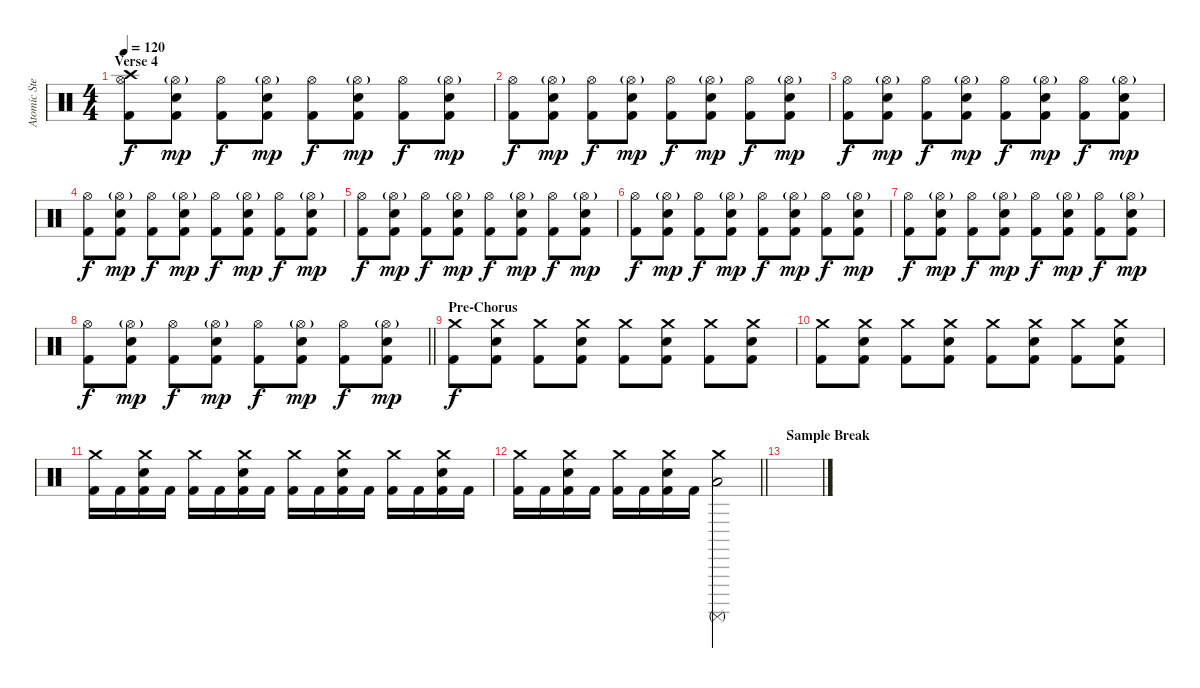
\track ("Atomic Steif" "Atomic Ste") {instrument percussion}
\staff {score}
\articulation defaults
\ts (4 4)
\section ("" "Verse 4")
\tempo 120
\clef neutral
\ks c
("Crash high (hit)" "Hi-Hat (open)" "Kick (hit) 2").8{dy f} ("Hi-Hat (open)"{g} "Electric Snare (hit)" "Kick (hit) 2").8{dy mp} ("Hi-Hat (open)" "Kick (hit) 2").8{dy f} ("Hi-Hat (open)"{g} "Electric Snare (hit)" "Kick (hit) 2").8{dy mp} ("Hi-Hat (open)" "Kick (hit) 2").8{dy f} ("Hi-Hat (open)"{g} "Electric Snare (hit)" "Kick (hit) 2").8{dy mp} ("Hi-Hat (open)" "Kick (hit) 2").8{dy f} ("Hi-Hat (open)"{g} "Electric Snare (hit)" "Kick (hit) 2").8{dy mp} |
("Hi-Hat (open)" "Kick (hit) 2").8{dy f} ("Hi-Hat (open)"{g} "Electric Snare (hit)" "Kick (hit) 2").8{dy mp} ("Hi-Hat (open)" "Kick (hit) 2").8{dy f} ("Hi-Hat (open)"{g} "Electric Snare (hit)" "Kick (hit) 2").8{dy mp} ("Hi-Hat (open)" "Kick (hit) 2").8{dy f} ("Hi-Hat (open)"{g} "Electric Snare (hit)" "Kick (hit) 2").8{dy mp} ("Hi-Hat (open)" "Kick (hit) 2").8{dy f} ("Hi-Hat (open)"{g} "Electric Snare (hit)" "Kick (hit) 2").8{dy mp} |
("Hi-Hat (open)" "Kick (hit) 2").8{dy f} ("Hi-Hat (open)"{g} "Electric Snare (hit)" "Kick (hit) 2").8{dy mp} ("Hi-Hat (open)" "Kick (hit) 2").8{dy f} ("Hi-Hat (open)"{g} "Electric Snare (hit)" "Kick (hit) 2").8{dy mp} ("Hi-Hat (open)" "Kick (hit) 2").8{dy f} ("Hi-Hat (open)"{g} "Electric Snare (hit)" "Kick (hit) 2").8{dy mp} ("Hi-Hat (open)" "Kick (hit) 2").8{dy f} ("Hi-Hat (open)"{g} "Electric Snare (hit)" "Kick (hit) 2").8{dy mp} |
("Hi-Hat (open)" "Kick (hit) 2").8{dy f} ("Hi-Hat (open)"{g} "Electric Snare (hit)" "Kick (hit) 2").8{dy mp} ("Hi-Hat (open)" "Kick (hit) 2").8{dy f} ("Hi-Hat (open)"{g} "Electric Snare (hit)" "Kick (hit) 2").8{dy mp} ("Hi-Hat (open)" "Kick (hit) 2").8{dy f} ("Hi-Hat (open)"{g} "Electric Snare (hit)" "Kick (hit) 2").8{dy mp} ("Hi-Hat (open)" "Kick (hit) 2").8{dy f} ("Hi-Hat (open)"{g} "Electric Snare (hit)" "Kick (hit) 2").8{dy mp} |
("Hi-Hat (open)" "Kick (hit) 2").8{dy f} ("Hi-Hat (open)"{g} "Electric Snare (hit)" "Kick (hit) 2").8{dy mp} ("Hi-Hat (open)" "Kick (hit) 2").8{dy f} ("Hi-Hat (open)"{g} "Electric Snare (hit)" "Kick (hit) 2").8{dy mp} ("Hi-Hat (open)" "Kick (hit) 2").8{dy f} ("Hi-Hat (open)"{g} "Electric Snare (hit)" "Kick (hit) 2").8{dy mp} ("Hi-Hat (open)" "Kick (hit) 2").8{dy f} ("Hi-Hat (open)"{g} "Electric Snare (hit)" "Kick (hit) 2").8{dy mp} |
("Hi-Hat (open)" "Kick (hit) 2").8{dy f} ("Hi-Hat (open)"{g} "Electric Snare (hit)" "Kick (hit) 2").8{dy mp} ("Hi-Hat (open)" "Kick (hit) 2").8{dy f} ("Hi-Hat (open)"{g} "Electric Snare (hit)" "Kick (hit) 2").8{dy mp} ("Hi-Hat (open)" "Kick (hit) 2").8{dy f} ("Hi-Hat (open)"{g} "Electric Snare (hit)" "Kick (hit) 2").8{dy mp} ("Hi-Hat (open)" "Kick (hit) 2").8{dy f} ("Hi-Hat (open)"{g} "Electric Snare (hit)" "Kick (hit) 2").8{dy mp} |
("Hi-Hat (open)" "Kick (hit) 2").8{dy f} ("Hi-Hat (open)"{g} "Electric Snare (hit)" "Kick (hit) 2").8{dy mp} ("Hi-Hat (open)" "Kick (hit) 2").8{dy f} ("Hi-Hat (open)"{g} "Electric Snare (hit)" "Kick (hit) 2").8{dy mp} ("Hi-Hat (open)" "Kick (hit) 2").8{dy f} ("Hi-Hat (open)"{g} "Electric Snare (hit)" "Kick (hit) 2").8{dy mp} ("Hi-Hat (open)" "Kick (hit) 2").8{dy f} ("Hi-Hat (open)"{g} "Electric Snare (hit)" "Kick (hit) 2").8{dy mp} |
\barLineRight lightlight
("Hi-Hat (open)" "Kick (hit) 2").8{dy f} ("Hi-Hat (open)"{g} "Electric Snare (hit)" "Kick (hit) 2").8{dy mp} ("Hi-Hat (open)" "Kick (hit) 2").8{dy f} ("Hi-Hat (open)"{g} "Electric Snare (hit)" "Kick (hit) 2").8{dy mp} ("Hi-Hat (open)" "Kick (hit) 2").8{dy f} ("Hi-Hat (open)"{g} "Electric Snare (hit)" "Kick (hit) 2").8{dy mp} ("Hi-Hat (open)" "Kick (hit) 2").8{dy f} ("Hi-Hat (open)"{g} "Electric Snare (hit)" "Kick (hit) 2").8{dy mp} |
\section ("" "Pre-Chorus")
("Crash medium (hit)" "Kick (hit) 2").8{dy f} ("Crash medium (hit)" "Electric Snare (hit)" "Kick (hit) 2").8 ("Crash medium (hit)" "Kick (hit) 2").8 ("Crash medium (hit)" "Electric Snare (hit)" "Kick (hit) 2").8 ("Crash medium (hit)" "Kick (hit) 2").8 ("Crash medium (hit)" "Electric Snare (hit)" "Kick (hit) 2").8 ("Crash medium (hit)" "Kick (hit) 2").8 ("Crash medium (hit)" "Electric Snare (hit)" "Kick (hit) 2").8 |
("Crash medium (hit)" "Kick (hit) 2").8 ("Crash medium (hit)" "Electric Snare (hit)" "Kick (hit) 2").8 ("Crash medium (hit)" "Kick (hit) 2").8 ("Crash medium (hit)" "Electric Snare (hit)" "Kick (hit) 2").8 ("Crash medium (hit)" "Kick (hit) 2").8 ("Crash medium (hit)" "Electric Snare (hit)" "Kick (hit) 2").8 ("Crash medium (hit)" "Kick (hit) 2").8 ("Crash medium (hit)" "Electric Snare (hit)" "Kick (hit) 2").8 |
("Crash medium (hit)" "Kick (hit) 2").16 "Kick (hit) 2".16 ("Crash medium (hit)" "Electric Snare (hit)" "Kick (hit) 2").16 "Kick (hit) 2".16 ("Crash medium (hit)" "Kick (hit) 2").16 "Kick (hit) 2".16 ("Crash medium (hit)" "Electric Snare (hit)" "Kick (hit) 2").16 "Kick (hit) 2".16 ("Crash medium (hit)" "Kick (hit) 2").16 "Kick (hit) 2".16 ("Crash medium (hit)" "Electric Snare (hit)" "Kick (hit) 2").16 "Kick (hit) 2".16 ("Crash medium (hit)" "Kick (hit) 2").16 "Kick (hit) 2".16 ("Crash medium (hit)" "Electric Snare (hit)" "Kick (hit) 2").16 "Kick (hit) 2".16 |
\barLineRight lightlight
("Crash medium (hit)" "Kick (hit) 2").16 "Kick (hit) 2".16 ("Crash medium (hit)" "Electric Snare (hit)" "Kick (hit) 2").16 "Kick (hit) 2".16 ("Crash medium (hit)" "Kick (hit) 2").16 "Kick (hit) 2".16 ("Crash medium (hit)" "Electric Snare (hit)" "Kick (hit) 2").16 "Kick (hit) 2".16 ("Crash medium (hit)" "Surdo (mute)" "Low Tom (hit)").2 |
\section ("" "Sample Break")
